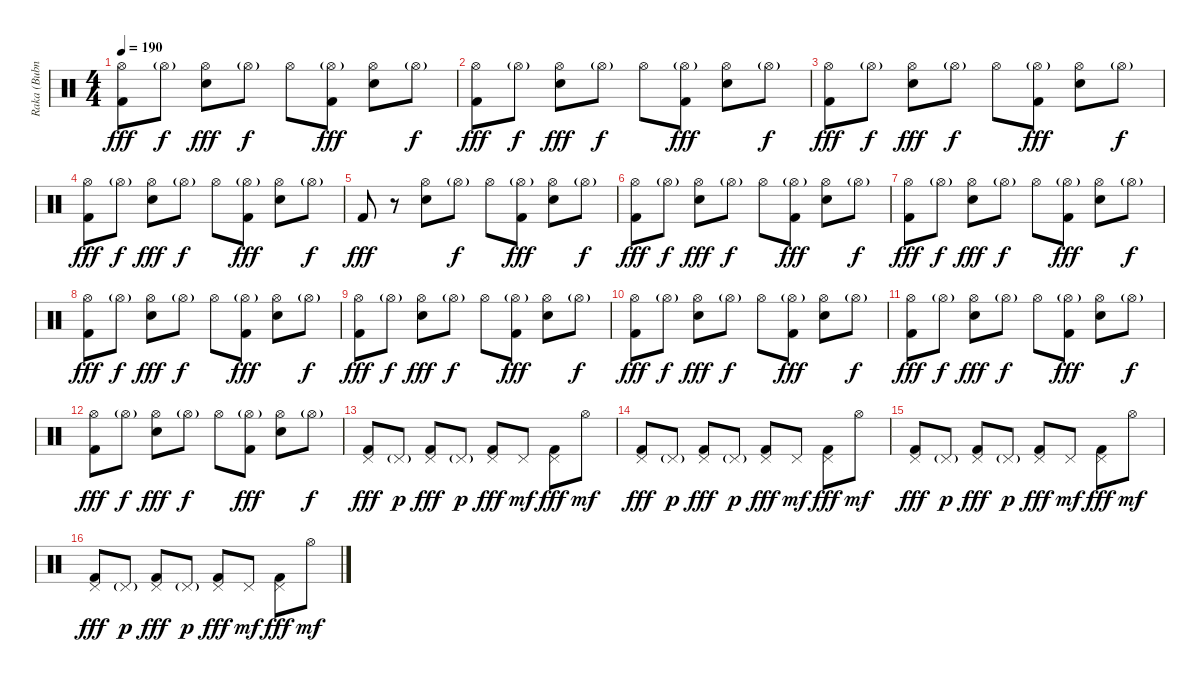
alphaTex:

\track ("Raka (Bubnjevi)" "Raka (Bubn") {instrument percussion}
\staff {score}
\articulation defaults
\ts (4 4)
\tempo 190
\clef neutral
\ks c
("Hi-Hat (open)" "Kick (hit) 2").8{dy fff} "Hi-Hat (open)"{g}.8{dy f} ("Hi-Hat (open)" "Snare (hit) 2").8{dy fff} "Hi-Hat (open)"{g}.8{dy f} "Hi-Hat (open)".8 ("Hi-Hat (open)"{g} "Kick (hit) 2").8{dy fff} ("Hi-Hat (open)" "Snare (hit) 2").8 "Hi-Hat (open)"{g}.8{dy f} |
("Hi-Hat (open)" "Kick (hit) 2").8{dy fff} "Hi-Hat (open)"{g}.8{dy f} ("Hi-Hat (open)" "Snare (hit) 2").8{dy fff} "Hi-Hat (open)"{g}.8{dy f} "Hi-Hat (open)".8 ("Hi-Hat (open)"{g} "Kick (hit) 2").8{dy fff} ("Hi-Hat (open)" "Snare (hit) 2").8 "Hi-Hat (open)"{g}.8{dy f} |
("Hi-Hat (open)" "Kick (hit) 2").8{dy fff} "Hi-Hat (open)"{g}.8{dy f} ("Hi-Hat (open)" "Snare (hit) 2").8{dy fff} "Hi-Hat (open)"{g}.8{dy f} "Hi-Hat (open)".8 ("Hi-Hat (open)"{g} "Kick (hit) 2").8{dy fff} ("Hi-Hat (open)" "Snare (hit) 2").8 "Hi-Hat (open)"{g}.8{dy f} |
("Hi-Hat (open)" "Kick (hit) 2").8{dy fff} "Hi-Hat (open)"{g}.8{dy f} ("Hi-Hat (open)" "Snare (hit) 2").8{dy fff} "Hi-Hat (open)"{g}.8{dy f} "Hi-Hat (open)".8 ("Hi-Hat (open)"{g} "Kick (hit) 2").8{dy fff} ("Hi-Hat (open)" "Snare (hit) 2").8 "Hi-Hat (open)"{g}.8{dy f} |
"Kick (hit) 2".8{dy fff} r.8 ("Hi-Hat (open)" "Snare (hit) 2").8 "Hi-Hat (open)"{g}.8{dy f} "Hi-Hat (open)".8 ("Hi-Hat (open)"{g} "Kick (hit) 2").8{dy fff} ("Hi-Hat (open)" "Snare (hit) 2").8 "Hi-Hat (open)"{g}.8{dy f} |
("Hi-Hat (open)" "Kick (hit) 2").8{dy fff} "Hi-Hat (open)"{g}.8{dy f} ("Hi-Hat (open)" "Snare (hit) 2").8{dy fff} "Hi-Hat (open)"{g}.8{dy f} "Hi-Hat (open)".8 ("Hi-Hat (open)"{g} "Kick (hit) 2").8{dy fff} ("Hi-Hat (open)" "Snare (hit) 2").8 "Hi-Hat (open)"{g}.8{dy f} |
("Hi-Hat (open)" "Kick (hit) 2").8{dy fff} "Hi-Hat (open)"{g}.8{dy f} ("Hi-Hat (open)" "Snare (hit) 2").8{dy fff} "Hi-Hat (open)"{g}.8{dy f} "Hi-Hat (open)".8 ("Hi-Hat (open)"{g} "Kick (hit) 2").8{dy fff} ("Hi-Hat (open)" "Snare (hit) 2").8 "Hi-Hat (open)"{g}.8{dy f} |
("Hi-Hat (open)" "Kick (hit) 2").8{dy fff} "Hi-Hat (open)"{g}.8{dy f} ("Hi-Hat (open)" "Snare (hit) 2").8{dy fff} "Hi-Hat (open)"{g}.8{dy f} "Hi-Hat (open)".8 ("Hi-Hat (open)"{g} "Kick (hit) 2").8{dy fff} ("Hi-Hat (open)" "Snare (hit) 2").8 "Hi-Hat (open)"{g}.8{dy f} |
("Hi-Hat (open)" "Kick (hit) 2").8{dy fff} "Hi-Hat (open)"{g}.8{dy f} ("Hi-Hat (open)" "Snare (hit) 2").8{dy fff} "Hi-Hat (open)"{g}.8{dy f} "Hi-Hat (open)".8 ("Hi-Hat (open)"{g} "Kick (hit) 2").8{dy fff} ("Hi-Hat (open)" "Snare (hit) 2").8 "Hi-Hat (open)"{g}.8{dy f} |
("Hi-Hat (open)" "Kick (hit) 2").8{dy fff} "Hi-Hat (open)"{g}.8{dy f} ("Hi-Hat (open)" "Snare (hit) 2").8{dy fff} "Hi-Hat (open)"{g}.8{dy f} "Hi-Hat (open)".8 ("Hi-Hat (open)"{g} "Kick (hit) 2").8{dy fff} ("Hi-Hat (open)" "Snare (hit) 2").8 "Hi-Hat (open)"{g}.8{dy f} |
("Hi-Hat (open)" "Kick (hit) 2").8{dy fff} "Hi-Hat (open)"{g}.8{dy f} ("Hi-Hat (open)" "Snare (hit) 2").8{dy fff} "Hi-Hat (open)"{g}.8{dy f} "Hi-Hat (open)".8 ("Hi-Hat (open)"{g} "Kick (hit) 2").8{dy fff} ("Hi-Hat (open)" "Snare (hit) 2").8 "Hi-Hat (open)"{g}.8{dy f} |
("Hi-Hat (open)" "Kick (hit) 2").8{dy fff} "Hi-Hat (open)"{g}.8{dy f} ("Hi-Hat (open)" "Snare (hit) 2").8{dy fff} "Hi-Hat (open)"{g}.8{dy f} "Hi-Hat (open)".8 ("Hi-Hat (open)"{g} "Kick (hit) 2").8{dy fff} ("Hi-Hat (open)" "Snare (hit) 2").8 "Hi-Hat (open)"{g}.8{dy f} |
("Pedal Hi-Hat (hit)" "Kick (hit) 2").8{dy fff} "Pedal Hi-Hat (hit)"{g}.8{dy p} ("Pedal Hi-Hat (hit)" "Kick (hit) 2").8{dy fff} "Pedal Hi-Hat (hit)"{g}.8{dy p} ("Pedal Hi-Hat (hit)" "Kick (hit) 2").8{dy fff} "Pedal Hi-Hat (hit)".8{dy mf} ("Pedal Hi-Hat (hit)" "Kick (hit) 2").8{dy fff} "Hi-Hat (open)".8{dy mf} |
("Pedal Hi-Hat (hit)" "Kick (hit) 2").8{dy fff} "Pedal Hi-Hat (hit)"{g}.8{dy p} ("Pedal Hi-Hat (hit)" "Kick (hit) 2").8{dy fff} "Pedal Hi-Hat (hit)"{g}.8{dy p} ("Pedal Hi-Hat (hit)" "Kick (hit) 2").8{dy fff} "Pedal Hi-Hat (hit)".8{dy mf} ("Pedal Hi-Hat (hit)" "Kick (hit) 2").8{dy fff} "Hi-Hat (open)".8{dy mf} |
("Pedal Hi-Hat (hit)" "Kick (hit) 2").8{dy fff} "Pedal Hi-Hat (hit)"{g}.8{dy p} ("Pedal Hi-Hat (hit)" "Kick (hit) 2").8{dy fff} "Pedal Hi-Hat (hit)"{g}.8{dy p} ("Pedal Hi-Hat (hit)" "Kick (hit) 2").8{dy fff} "Pedal Hi-Hat (hit)".8{dy mf} ("Pedal Hi-Hat (hit)" "Kick (hit) 2").8{dy fff} "Hi-Hat (open)".8{dy mf} |
("Pedal Hi-Hat (hit)" "Kick (hit) 2").8{dy fff} "Pedal Hi-Hat (hit)"{g}.8{dy p} ("Pedal Hi-Hat (hit)" "Kick (hit) 2").8{dy fff} "Pedal Hi-Hat (hit)"{g}.8{dy p} ("Pedal Hi-Hat (hit)" "Kick (hit) 2").8{dy fff} "Pedal Hi-Hat (hit)".8{dy mf} ("Pedal Hi-Hat (hit)" "Kick (hit) 2").8{dy fff} "Hi-Hat (open)".8{dy mf}
